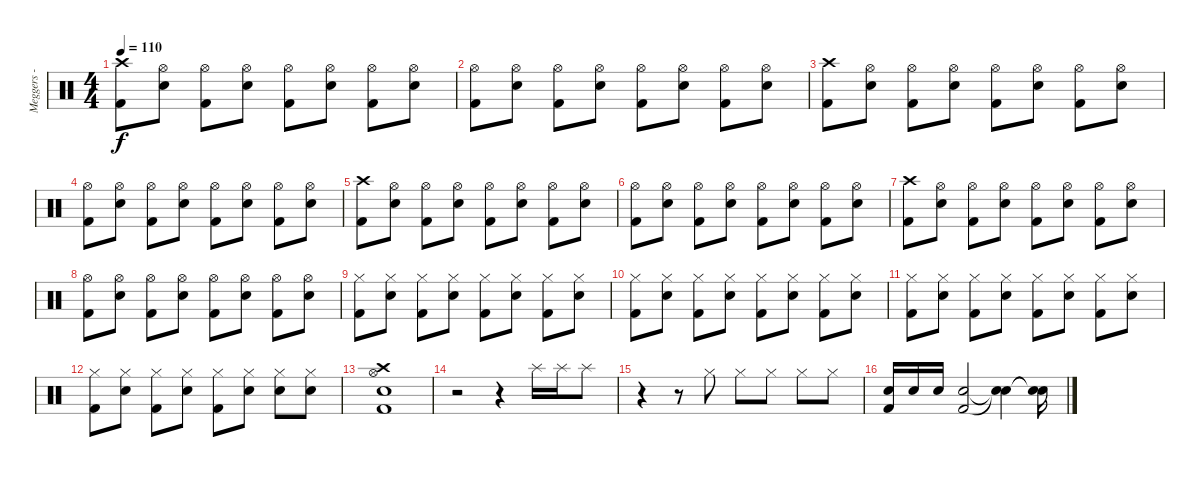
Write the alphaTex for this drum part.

\track ("Meggers - Drums" "Meggers - ") {instrument percussion}
\staff {score}
\articulation defaults
\ts (4 4)
\tempo 110
\clef neutral
\ks c
("Crash high (hit)" "Kick (hit) 2").8{dy f} ("Hi-Hat (open)" "Electric Snare (hit)").8 ("Hi-Hat (open)" "Kick (hit) 2").8 ("Hi-Hat (open)" "Electric Snare (hit)").8 ("Hi-Hat (open)" "Kick (hit) 2").8 ("Hi-Hat (open)" "Electric Snare (hit)").8 ("Hi-Hat (open)" "Kick (hit) 2").8 ("Hi-Hat (open)" "Electric Snare (hit)").8 |
("Hi-Hat (open)" "Kick (hit) 2").8 ("Hi-Hat (open)" "Electric Snare (hit)").8 ("Hi-Hat (open)" "Kick (hit) 2").8 ("Hi-Hat (open)" "Electric Snare (hit)").8 ("Hi-Hat (open)" "Kick (hit) 2").8 ("Hi-Hat (open)" "Electric Snare (hit)").8 ("Hi-Hat (open)" "Kick (hit) 2").8 ("Hi-Hat (open)" "Electric Snare (hit)").8 |
("Crash high (hit)" "Kick (hit) 2").8 ("Hi-Hat (open)" "Electric Snare (hit)").8 ("Hi-Hat (open)" "Kick (hit) 2").8 ("Hi-Hat (open)" "Electric Snare (hit)").8 ("Hi-Hat (open)" "Kick (hit) 2").8 ("Hi-Hat (open)" "Electric Snare (hit)").8 ("Hi-Hat (open)" "Kick (hit) 2").8 ("Hi-Hat (open)" "Electric Snare (hit)").8 |
("Hi-Hat (open)" "Kick (hit) 2").8 ("Hi-Hat (open)" "Electric Snare (hit)").8 ("Hi-Hat (open)" "Kick (hit) 2").8 ("Hi-Hat (open)" "Electric Snare (hit)").8 ("Hi-Hat (open)" "Kick (hit) 2").8 ("Hi-Hat (open)" "Electric Snare (hit)").8 ("Hi-Hat (open)" "Kick (hit) 2").8 ("Hi-Hat (open)" "Electric Snare (hit)").8 |
("Crash high (hit)" "Kick (hit) 2").8 ("Hi-Hat (open)" "Electric Snare (hit)").8 ("Hi-Hat (open)" "Kick (hit) 2").8 ("Hi-Hat (open)" "Electric Snare (hit)").8 ("Hi-Hat (open)" "Kick (hit) 2").8 ("Hi-Hat (open)" "Electric Snare (hit)").8 ("Hi-Hat (open)" "Kick (hit) 2").8 ("Hi-Hat (open)" "Electric Snare (hit)").8 |
("Hi-Hat (open)" "Kick (hit) 2").8 ("Hi-Hat (open)" "Electric Snare (hit)").8 ("Hi-Hat (open)" "Kick (hit) 2").8 ("Hi-Hat (open)" "Electric Snare (hit)").8 ("Hi-Hat (open)" "Kick (hit) 2").8 ("Hi-Hat (open)" "Electric Snare (hit)").8 ("Hi-Hat (open)" "Kick (hit) 2").8 ("Hi-Hat (open)" "Electric Snare (hit)").8 |
("Crash high (hit)" "Kick (hit) 2").8 ("Hi-Hat (open)" "Electric Snare (hit)").8 ("Hi-Hat (open)" "Kick (hit) 2").8 ("Hi-Hat (open)" "Electric Snare (hit)").8 ("Hi-Hat (open)" "Kick (hit) 2").8 ("Hi-Hat (open)" "Electric Snare (hit)").8 ("Hi-Hat (open)" "Kick (hit) 2").8 ("Hi-Hat (open)" "Electric Snare (hit)").8 |
("Hi-Hat (open)" "Kick (hit) 2").8 ("Hi-Hat (open)" "Electric Snare (hit)").8 ("Hi-Hat (open)" "Kick (hit) 2").8 ("Hi-Hat (open)" "Electric Snare (hit)").8 ("Hi-Hat (open)" "Kick (hit) 2").8 ("Hi-Hat (open)" "Electric Snare (hit)").8 ("Hi-Hat (open)" "Kick (hit) 2").8 ("Hi-Hat (open)" "Electric Snare (hit)").8 |
("Hi-Hat (closed)" "Kick (hit) 2").8 ("Hi-Hat (closed)" "Electric Snare (hit)").8 ("Hi-Hat (closed)" "Kick (hit) 2").8 ("Hi-Hat (closed)" "Electric Snare (hit)").8 ("Hi-Hat (closed)" "Kick (hit) 2").8 ("Hi-Hat (closed)" "Electric Snare (hit)").8 ("Hi-Hat (closed)" "Kick (hit) 2").8 ("Hi-Hat (closed)" "Electric Snare (hit)").8 |
("Hi-Hat (closed)" "Kick (hit) 2").8 ("Hi-Hat (closed)" "Electric Snare (hit)").8 ("Hi-Hat (closed)" "Kick (hit) 2").8 ("Hi-Hat (closed)" "Electric Snare (hit)").8 ("Hi-Hat (closed)" "Kick (hit) 2").8 ("Hi-Hat (closed)" "Electric Snare (hit)").8 ("Hi-Hat (closed)" "Kick (hit) 2").8 ("Hi-Hat (closed)" "Electric Snare (hit)").8 |
("Hi-Hat (closed)" "Kick (hit) 2").8 ("Hi-Hat (closed)" "Electric Snare (hit)").8 ("Hi-Hat (closed)" "Kick (hit) 2").8 ("Hi-Hat (closed)" "Electric Snare (hit)").8 ("Hi-Hat (closed)" "Kick (hit) 2").8 ("Hi-Hat (closed)" "Electric Snare (hit)").8 ("Hi-Hat (closed)" "Kick (hit) 2").8 ("Hi-Hat (closed)" "Electric Snare (hit)").8 |
("Hi-Hat (closed)" "Kick (hit) 2").8 ("Hi-Hat (closed)" "Electric Snare (hit)").8 ("Hi-Hat (closed)" "Kick (hit) 2").8 ("Hi-Hat (closed)" "Electric Snare (hit)").8 ("Hi-Hat (closed)" "Kick (hit) 2").8 ("Hi-Hat (closed)" "Electric Snare (hit)").8 ("Hi-Hat (closed)" "Electric Snare (hit)").8 ("Hi-Hat (closed)" "Electric Snare (hit)").8 |
("Crash high (hit)" "Hi-Hat (open)" "Electric Snare (hit)" "Kick (hit) 2").1 |
r.2 r.4 "Splash (hit)".16 "Splash (hit)".16 "Splash (hit)".8 |
r.4 r.8 "Hi-Hat (closed)".8 "Hi-Hat (closed)".8 "Hi-Hat (closed)".8 "Hi-Hat (closed)".8 "Hi-Hat (closed)".8 |
("Electric Snare (hit)" "Kick (hit) 2").16 "Electric Snare (hit)".16 "Electric Snare (hit)".16 ("Electric Snare (hit)" "Kick (hit) 2").2 ("Snare (hit)"{t} "Snare (hit)"{t}).4 ("Snare (hit)"{t} "Snare (hit)"{t}).16
